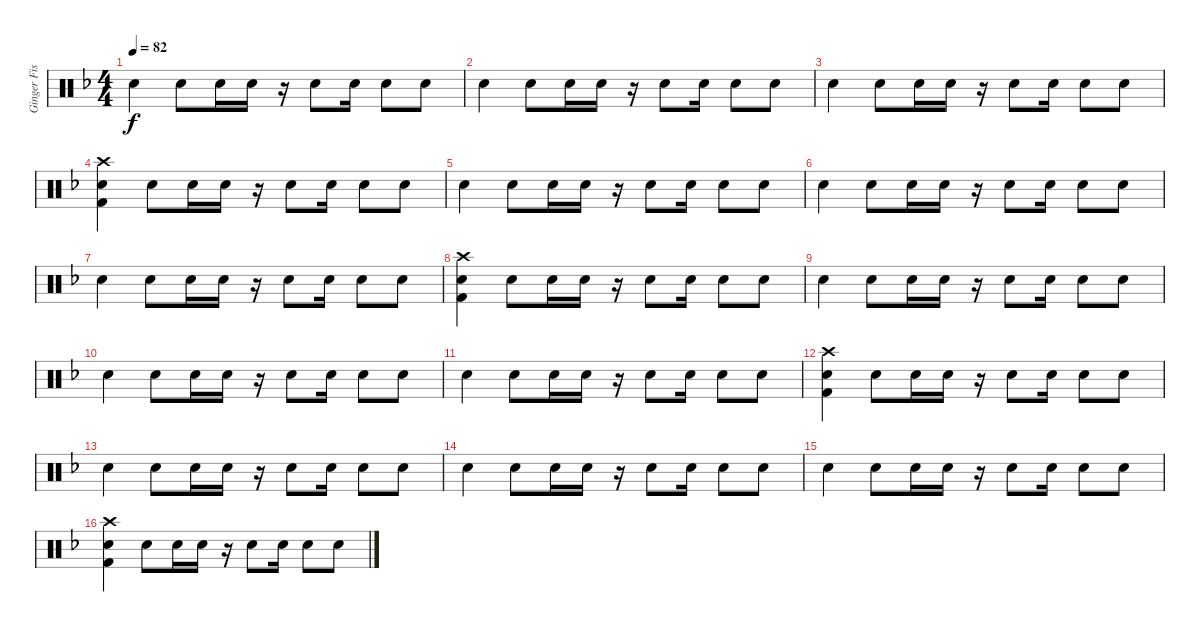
\track ("Ginger Fish" "Ginger Fis") {instrument percussion}
\staff {score}
\articulation defaults
\ts (4 4)
\tempo 82
\clef neutral
\ks f "Electric Snare (hit)".4{dy f} "Electric Snare (hit)".8 "Electric Snare (hit)".16 "Electric Snare (hit)".16
r.16 "Electric Snare (hit)".8 "Electric Snare (hit)".16 "Electric Snare (hit)".8 "Electric Snare (hit)".8 |
"Electric Snare (hit)".4 "Electric Snare (hit)".8 "Electric Snare (hit)".16 "Electric Snare (hit)".16 r.16 "Electric Snare (hit)".8 "Electric Snare (hit)".16 "Electric Snare (hit)".8 "Electric Snare (hit)".8 |
"Electric Snare (hit)".4 "Electric Snare (hit)".8 "Electric Snare (hit)".16 "Electric Snare (hit)".16 r.16 "Electric Snare (hit)".8 "Electric Snare (hit)".16 "Electric Snare (hit)".8 "Electric Snare (hit)".8 |
("Kick (hit) 2" "Crash high (hit)" "Electric Snare (hit)").4{volume 13} "Electric Snare (hit)".8 "Electric Snare (hit)".16 "Electric Snare (hit)".16 r.16 "Electric Snare (hit)".8 "Electric Snare (hit)".16 "Electric Snare (hit)".8 "Electric Snare (hit)".8 |
"Electric Snare (hit)".4 "Electric Snare (hit)".8 "Electric Snare (hit)".16 "Electric Snare (hit)".16 r.16 "Electric Snare (hit)".8 "Electric Snare (hit)".16 "Electric Snare (hit)".8 "Electric Snare (hit)".8 |
"Electric Snare (hit)".4 "Electric Snare (hit)".8 "Electric Snare (hit)".16 "Electric Snare (hit)".16 r.16 "Electric Snare (hit)".8 "Electric Snare (hit)".16 "Electric Snare (hit)".8 "Electric Snare (hit)".8 |
"Electric Snare (hit)".4 "Electric Snare (hit)".8 "Electric Snare (hit)".16 "Electric Snare (hit)".16 r.16 "Electric Snare (hit)".8 "Electric Snare (hit)".16 "Electric Snare (hit)".8 "Electric Snare (hit)".8 |
("Kick (hit) 2" "Crash high (hit)" "Electric Snare (hit)").4{volume 13} "Electric Snare (hit)".8 "Electric Snare (hit)".16 "Electric Snare (hit)".16 r.16 "Electric Snare (hit)".8 "Electric Snare (hit)".16 "Electric Snare (hit)".8 "Electric Snare (hit)".8 |
"Electric Snare (hit)".4 "Electric Snare (hit)".8 "Electric Snare (hit)".16 "Electric Snare (hit)".16 r.16 "Electric Snare (hit)".8 "Electric Snare (hit)".16 "Electric Snare (hit)".8 "Electric Snare (hit)".8 |
"Electric Snare (hit)".4 "Electric Snare (hit)".8 "Electric Snare (hit)".16 "Electric Snare (hit)".16 r.16 "Electric Snare (hit)".8 "Electric Snare (hit)".16 "Electric Snare (hit)".8 "Electric Snare (hit)".8 |
"Electric Snare (hit)".4 "Electric Snare (hit)".8 "Electric Snare (hit)".16 "Electric Snare (hit)".16 r.16 "Electric Snare (hit)".8 "Electric Snare (hit)".16 "Electric Snare (hit)".8 "Electric Snare (hit)".8 |
("Kick (hit) 2" "Crash high (hit)" "Electric Snare (hit)").4{volume 13} "Electric Snare (hit)".8 "Electric Snare (hit)".16 "Electric Snare (hit)".16 r.16 "Electric Snare (hit)".8 "Electric Snare (hit)".16 "Electric Snare (hit)".8 "Electric Snare (hit)".8 |
"Electric Snare (hit)".4 "Electric Snare (hit)".8 "Electric Snare (hit)".16 "Electric Snare (hit)".16 r.16 "Electric Snare (hit)".8 "Electric Snare (hit)".16 "Electric Snare (hit)".8 "Electric Snare (hit)".8 |
"Electric Snare (hit)".4 "Electric Snare (hit)".8 "Electric Snare (hit)".16 "Electric Snare (hit)".16 r.16 "Electric Snare (hit)".8 "Electric Snare (hit)".16 "Electric Snare (hit)".8 "Electric Snare (hit)".8 |
"Electric Snare (hit)".4 "Electric Snare (hit)".8 "Electric Snare (hit)".16 "Electric Snare (hit)".16 r.16 "Electric Snare (hit)".8 "Electric Snare (hit)".16 "Electric Snare (hit)".8 "Electric Snare (hit)".8 |
("Kick (hit) 2" "Crash high (hit)" "Electric Snare (hit)").4{volume 13} "Electric Snare (hit)".8 "Electric Snare (hit)".16 "Electric Snare (hit)".16 r.16 "Electric Snare (hit)".8 "Electric Snare (hit)".16 "Electric Snare (hit)".8 "Electric Snare (hit)".8
